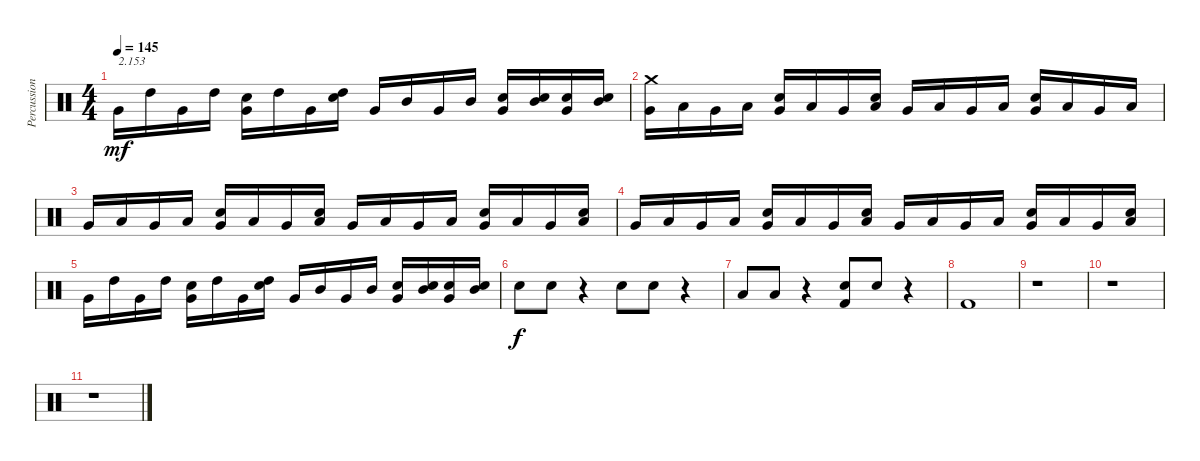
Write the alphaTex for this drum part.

\track ("Percussions" "Percussion") {instrument percussion}
\staff {score}
\articulation defaults
\ts (4 4)
\tempo 145
\clef neutral
\ks c "Very Low Tom (hit)".16{txt "2.153" dy mf} "High Tom (hit)".16 "Very Low Tom (hit)".16 "High Tom (hit)".16
("Very Low Tom (hit)" "Electric Snare (hit)").16 "High Tom (hit)".16 "Very Low Tom (hit)".16 ("High Tom (hit)" "Electric Snare (hit)").16 "Very Low Tom (hit)".16 "Mid Tom (hit)".16 "Very Low Tom (hit)".16 "Mid Tom (hit)".16 ("Very Low Tom (hit)" "Electric Snare (hit)").16 ("Mid Tom (hit)" "Electric Snare (hit)").16 ("Very Low Tom (hit)" "Electric Snare (hit)").16 ("Mid Tom (hit)" "Electric Snare (hit)").16 |
("Very Low Tom (hit)" "Crash medium (hit)").16 "Low Tom (hit)".16 "Very Low Tom (hit)".16 "Low Tom (hit)".16 ("Very Low Tom (hit)" "Electric Snare (hit)").16 "Low Tom (hit)".16 "Very Low Tom (hit)".16 ("Low Tom (hit)" "Electric Snare (hit)").16 "Very Low Tom (hit)".16 "Low Tom (hit)".16 "Very Low Tom (hit)".16 "Low Tom (hit)".16 ("Very Low Tom (hit)" "Electric Snare (hit)").16 "Low Tom (hit)".16 "Very Low Tom (hit)".16 "Low Tom (hit)".16 |
"Very Low Tom (hit)".16 "Low Tom (hit)".16 "Very Low Tom (hit)".16 "Low Tom (hit)".16 ("Very Low Tom (hit)" "Electric Snare (hit)").16 "Low Tom (hit)".16 "Very Low Tom (hit)".16 ("Low Tom (hit)" "Electric Snare (hit)").16 "Very Low Tom (hit)".16 "Low Tom (hit)".16 "Very Low Tom (hit)".16 "Low Tom (hit)".16 ("Very Low Tom (hit)" "Electric Snare (hit)").16 "Low Tom (hit)".16 "Very Low Tom (hit)".16 ("Low Tom (hit)" "Electric Snare (hit)").16 |
"Very Low Tom (hit)".16 "Low Tom (hit)".16 "Very Low Tom (hit)".16 "Low Tom (hit)".16 ("Very Low Tom (hit)" "Electric Snare (hit)").16 "Low Tom (hit)".16 "Very Low Tom (hit)".16 ("Low Tom (hit)" "Electric Snare (hit)").16 "Very Low Tom (hit)".16 "Low Tom (hit)".16 "Very Low Tom (hit)".16 "Low Tom (hit)".16 ("Very Low Tom (hit)" "Electric Snare (hit)").16 "Low Tom (hit)".16 "Very Low Tom (hit)".16 ("Low Tom (hit)" "Electric Snare (hit)").16 |
"Very Low Tom (hit)".16 "High Tom (hit)".16 "Very Low Tom (hit)".16 "High Tom (hit)".16 ("Very Low Tom (hit)" "Electric Snare (hit)").16 "High Tom (hit)".16 "Very Low Tom (hit)".16 ("High Tom (hit)" "Electric Snare (hit)").16 "Very Low Tom (hit)".16 "Mid Tom (hit)".16 "Very Low Tom (hit)".16 "Mid Tom (hit)".16 ("Very Low Tom (hit)" "Electric Snare (hit)").16 ("Mid Tom (hit)" "Electric Snare (hit)").16 ("Very Low Tom (hit)" "Electric Snare (hit)").16 ("Mid Tom (hit)" "Electric Snare (hit)").16 |
"Electric Snare (hit)".8{dy f} "Electric Snare (hit)".8 r.4 "Electric Snare (hit)".8 "Electric Snare (hit)".8 r.4 |
"Low Floor Tom (hit)".8 "Low Floor Tom (hit)".8 r.4 ("Kick (hit) 2" "Electric Snare (hit)").8 "Electric Snare (hit)".8 r.4 |
"Kick (hit) 2".1 |
r.1 |
r.1 |
r.1
